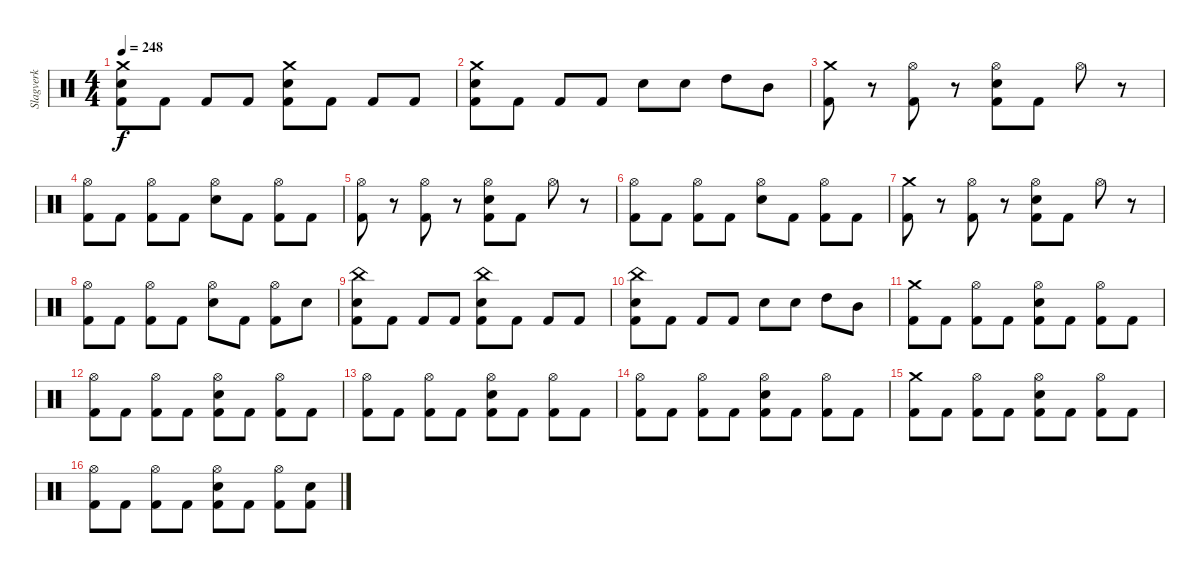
\track ("Slagverk" "Slagverk") {instrument percussion}
\staff {score}
\articulation defaults
\ts (4 4)
\tempo 248
\clef neutral
\ks c
("Crash medium (hit)" "Snare (hit) 2" "Kick (hit) 2").8{dy f} "Kick (hit) 2".8 "Kick (hit) 2".8 "Kick (hit) 2".8 ("Crash medium (hit)" "Snare (hit) 2" "Kick (hit) 2").8 "Kick (hit) 2".8 "Kick (hit) 2".8 "Kick (hit) 2".8 |
("Crash medium (hit)" "Snare (hit) 2" "Kick (hit) 2").8 "Kick (hit) 2".8 "Kick (hit) 2".8 "Kick (hit) 2".8 "Snare (hit) 2".8 "Snare (hit) 2".8 "High Tom (hit)".8 "Mid Tom (hit)".8 |
("Crash medium (hit)" "Kick (hit) 2").8 r.8 ("Hi-Hat (open)" "Kick (hit) 2").8 r.8 ("Hi-Hat (open)" "Snare (hit) 2" "Kick (hit) 2").8 "Kick (hit) 2".8 "Hi-Hat (open)".8 r.8 |
("Hi-Hat (open)" "Kick (hit) 2").8 "Kick (hit) 2".8 ("Hi-Hat (open)" "Kick (hit) 2").8 "Kick (hit) 2".8 ("Hi-Hat (open)" "Snare (hit) 2").8 "Kick (hit) 2".8 ("Hi-Hat (open)" "Kick (hit) 2").8 "Kick (hit) 2".8 |
("Hi-Hat (open)" "Kick (hit) 2").8 r.8 ("Hi-Hat (open)" "Kick (hit) 2").8 r.8 ("Hi-Hat (open)" "Snare (hit) 2" "Kick (hit) 2").8 "Kick (hit) 2".8 "Hi-Hat (open)".8 r.8 |
("Hi-Hat (open)" "Kick (hit) 2").8 "Kick (hit) 2".8 ("Hi-Hat (open)" "Kick (hit) 2").8 "Kick (hit) 2".8 ("Hi-Hat (open)" "Snare (hit) 2").8 "Kick (hit) 2".8 ("Hi-Hat (open)" "Kick (hit) 2").8 "Kick (hit) 2".8 |
("Crash medium (hit)" "Kick (hit) 2").8 r.8 ("Hi-Hat (open)" "Kick (hit) 2").8 r.8 ("Hi-Hat (open)" "Snare (hit) 2" "Kick (hit) 2").8 "Kick (hit) 2".8 "Hi-Hat (open)".8 r.8 |
("Hi-Hat (open)" "Kick (hit) 2").8 "Kick (hit) 2".8 ("Hi-Hat (open)" "Kick (hit) 2").8 "Kick (hit) 2".8 ("Hi-Hat (open)" "Snare (hit) 2").8 "Kick (hit) 2".8 ("Hi-Hat (open)" "Kick (hit) 2").8 "Snare (hit) 2".8 |
("China (hit)" "Snare (hit) 2" "Kick (hit) 2").8 "Kick (hit) 2".8 "Kick (hit) 2".8 "Kick (hit) 2".8 ("China (hit)" "Snare (hit) 2" "Kick (hit) 2").8 "Kick (hit) 2".8 "Kick (hit) 2".8 "Kick (hit) 2".8 |
("China (hit)" "Snare (hit) 2" "Kick (hit) 2").8 "Kick (hit) 2".8 "Kick (hit) 2".8 "Kick (hit) 2".8 "Snare (hit) 2".8 "Snare (hit) 2".8 "High Tom (hit)".8 "Mid Tom (hit)".8 |
("Crash medium (hit)" "Kick (hit) 2").8 "Kick (hit) 2".8 ("Hi-Hat (open)" "Kick (hit) 2").8 "Kick (hit) 2".8 ("Hi-Hat (open)" "Snare (hit) 2" "Kick (hit) 2").8 "Kick (hit) 2".8 ("Hi-Hat (open)" "Kick (hit) 2").8 "Kick (hit) 2".8 |
("Hi-Hat (open)" "Kick (hit) 2").8 "Kick (hit) 2".8 ("Hi-Hat (open)" "Kick (hit) 2").8 "Kick (hit) 2".8 ("Hi-Hat (open)" "Snare (hit) 2" "Kick (hit) 2").8 "Kick (hit) 2".8 ("Hi-Hat (open)" "Kick (hit) 2").8 "Kick (hit) 2".8 |
("Hi-Hat (open)" "Kick (hit) 2").8 "Kick (hit) 2".8 ("Hi-Hat (open)" "Kick (hit) 2").8 "Kick (hit) 2".8 ("Hi-Hat (open)" "Snare (hit) 2" "Kick (hit) 2").8 "Kick (hit) 2".8 ("Hi-Hat (open)" "Kick (hit) 2").8 "Kick (hit) 2".8 |
("Hi-Hat (open)" "Kick (hit) 2").8 "Kick (hit) 2".8 ("Hi-Hat (open)" "Kick (hit) 2").8 "Kick (hit) 2".8 ("Hi-Hat (open)" "Snare (hit) 2" "Kick (hit) 2").8 "Kick (hit) 2".8 ("Hi-Hat (open)" "Kick (hit) 2").8 "Kick (hit) 2".8 |
("Crash medium (hit)" "Kick (hit) 2").8 "Kick (hit) 2".8 ("Hi-Hat (open)" "Kick (hit) 2").8 "Kick (hit) 2".8 ("Hi-Hat (open)" "Snare (hit) 2" "Kick (hit) 2").8 "Kick (hit) 2".8 ("Hi-Hat (open)" "Kick (hit) 2").8 "Kick (hit) 2".8 |
("Hi-Hat (open)" "Kick (hit) 2").8 "Kick (hit) 2".8 ("Hi-Hat (open)" "Kick (hit) 2").8 "Kick (hit) 2".8 ("Hi-Hat (open)" "Snare (hit) 2" "Kick (hit) 2").8 "Kick (hit) 2".8 ("Hi-Hat (open)" "Kick (hit) 2").8 ("Snare (hit) 2" "Kick (hit) 2").8
